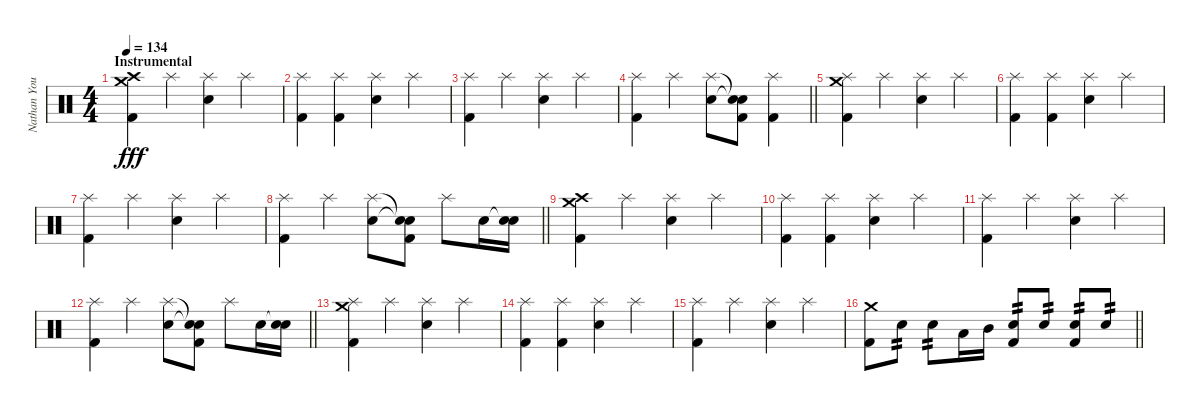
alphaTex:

\track ("Nathan Young" "Nathan You") {instrument percussion}
\staff {score}
\articulation defaults
\ts (4 4)
\section ("" "Instrumental ")
\tempo 134
\clef neutral
\ks c
("Crash medium (hit)" "Crash high (hit)" "Kick (hit) 2").4{dy fff} "Splash (hit)".4 ("Splash (hit)" "Electric Snare (hit)").4 "Splash (hit)".4 |
("Splash (hit)" "Kick (hit) 2").4 ("Splash (hit)" "Kick (hit) 2").4 ("Splash (hit)" "Electric Snare (hit)").4 "Splash (hit)".4 |
("Splash (hit)" "Kick (hit) 2").4 "Splash (hit)".4 ("Splash (hit)" "Electric Snare (hit)").4 "Splash (hit)".4 |
\barLineRight lightlight
("Splash (hit)" "Kick (hit) 2").4 "Splash (hit)".4 ("Splash (hit)" "Electric Snare (hit)").8 ("Snare (hit)"{t} "Snare (hit)"{t} "Kick (hit) 2").8 ("Splash (hit)" "Kick (hit) 2").4 |
("Crash medium (hit)" "Splash (hit)" "Kick (hit) 2").4 "Splash (hit)".4 ("Splash (hit)" "Electric Snare (hit)").4 "Splash (hit)".4 |
("Splash (hit)" "Kick (hit) 2").4 ("Splash (hit)" "Kick (hit) 2").4 ("Splash (hit)" "Electric Snare (hit)").4 "Splash (hit)".4 |
("Splash (hit)" "Kick (hit) 2").4 "Splash (hit)".4 ("Splash (hit)" "Electric Snare (hit)").4 "Splash (hit)".4 |
\barLineRight lightlight
("Splash (hit)" "Kick (hit) 2").4 "Splash (hit)".4 ("Splash (hit)" "Electric Snare (hit)").8 ("Snare (hit)"{t} "Snare (hit)"{t} "Kick (hit) 2").8 "Splash (hit)".8 "Electric Snare (hit)".16 ("Snare (hit)"{t} "Electric Snare (hit)").16 |
("Crash medium (hit)" "Crash high (hit)" "Kick (hit) 2").4 "Splash (hit)".4 ("Splash (hit)" "Electric Snare (hit)").4 "Splash (hit)".4 |
("Splash (hit)" "Kick (hit) 2").4 ("Splash (hit)" "Kick (hit) 2").4 ("Splash (hit)" "Electric Snare (hit)").4 "Splash (hit)".4 |
("Splash (hit)" "Kick (hit) 2").4 "Splash (hit)".4 ("Splash (hit)" "Electric Snare (hit)").4 "Splash (hit)".4 |
\barLineRight lightlight
("Splash (hit)" "Kick (hit) 2").4 "Splash (hit)".4 ("Splash (hit)" "Electric Snare (hit)").8 ("Snare (hit)"{t} "Snare (hit)"{t} "Kick (hit) 2").8 "Splash (hit)".8 "Electric Snare (hit)".16 ("Snare (hit)"{t} "Electric Snare (hit)").16 |
("Crash medium (hit)" "Splash (hit)" "Kick (hit) 2").4 "Splash (hit)".4 ("Splash (hit)" "Electric Snare (hit)").4 "Splash (hit)".4 |
("Splash (hit)" "Kick (hit) 2").4 ("Splash (hit)" "Kick (hit) 2").4 ("Splash (hit)" "Electric Snare (hit)").4 "Splash (hit)".4 |
("Splash (hit)" "Kick (hit) 2").4 "Splash (hit)".4 ("Splash (hit)" "Electric Snare (hit)").4 "Splash (hit)".4 |
\barLineRight lightlight
("Crash medium (hit)" "Kick (hit) 2").8 "Electric Snare (hit)".8{tp 2} "Electric Snare (hit)".8{tp 2} "Low Tom (hit)".16 "Mid Tom (hit)".16 ("Electric Snare (hit)" "Kick (hit) 2").8{tp 2} "Electric Snare (hit)".8{tp 2} ("Electric Snare (hit)" "Kick (hit) 2").8{tp 2} "Electric Snare (hit)".8{tp 2}
